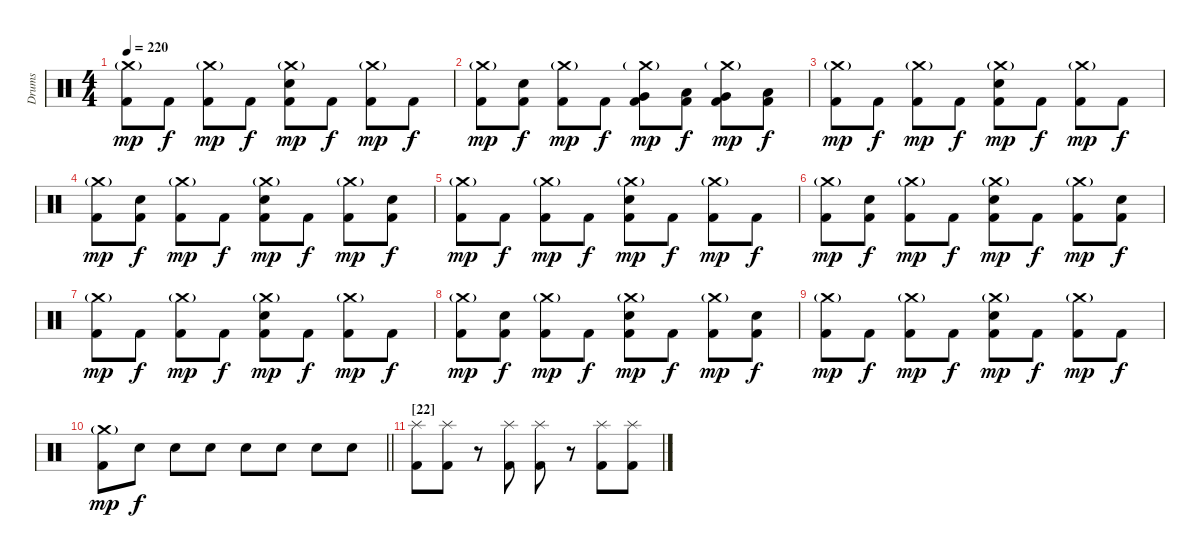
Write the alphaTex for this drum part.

\track ("Drums" "Drums") {instrument percussion}
\staff {score}
\articulation defaults
\ts (4 4)
\tempo 220
\clef neutral
\ks c
("Crash medium (hit)"{g} "Kick (hit) 2").8{dy mp} "Kick (hit) 2".8{dy f} ("Crash medium (hit)"{g} "Kick (hit) 2").8{dy mp} "Kick (hit) 2".8{dy f} ("Crash medium (hit)"{g} "Snare (hit) 2" "Kick (hit) 2").8{dy mp} "Kick (hit) 2".8{dy f} ("Crash medium (hit)"{g} "Kick (hit) 2").8{dy mp} "Kick (hit) 2".8{dy f} |
("Crash medium (hit)"{g} "Kick (hit) 2").8{dy mp} ("Snare (hit) 2" "Kick (hit) 2").8{dy f} ("Crash medium (hit)"{g} "Kick (hit) 2").8{dy mp} "Kick (hit) 2".8{dy f} ("Crash medium (hit)"{g} "Very Low Tom (hit)" "Kick (hit) 2").8{dy mp} ("Low Floor Tom (hit)" "Kick (hit) 2").8{dy f} ("Crash medium (hit)"{g} "Very Low Tom (hit)" "Kick (hit) 2").8{dy mp} ("Low Tom (hit)" "Kick (hit) 2").8{dy f} |
("Crash medium (hit)"{g} "Kick (hit) 2").8{dy mp} "Kick (hit) 2".8{dy f} ("Crash medium (hit)"{g} "Kick (hit) 2").8{dy mp} "Kick (hit) 2".8{dy f} ("Crash medium (hit)"{g} "Snare (hit) 2" "Kick (hit) 2").8{dy mp} "Kick (hit) 2".8{dy f} ("Crash medium (hit)"{g} "Kick (hit) 2").8{dy mp} "Kick (hit) 2".8{dy f} |
("Crash medium (hit)"{g} "Kick (hit) 2").8{dy mp} ("Snare (hit) 2" "Kick (hit) 2").8{dy f} ("Crash medium (hit)"{g} "Kick (hit) 2").8{dy mp} "Kick (hit) 2".8{dy f} ("Crash medium (hit)"{g} "Snare (hit) 2" "Kick (hit) 2").8{dy mp} "Kick (hit) 2".8{dy f} ("Crash medium (hit)"{g} "Kick (hit) 2").8{dy mp} ("Snare (hit) 2" "Kick (hit) 2").8{dy f} |
("Crash medium (hit)"{g} "Kick (hit) 2").8{dy mp} "Kick (hit) 2".8{dy f} ("Crash medium (hit)"{g} "Kick (hit) 2").8{dy mp} "Kick (hit) 2".8{dy f} ("Crash medium (hit)"{g} "Snare (hit) 2" "Kick (hit) 2").8{dy mp} "Kick (hit) 2".8{dy f} ("Crash medium (hit)"{g} "Kick (hit) 2").8{dy mp} "Kick (hit) 2".8{dy f} |
("Crash medium (hit)"{g} "Kick (hit) 2").8{dy mp} ("Snare (hit) 2" "Kick (hit) 2").8{dy f} ("Crash medium (hit)"{g} "Kick (hit) 2").8{dy mp} "Kick (hit) 2".8{dy f} ("Crash medium (hit)"{g} "Snare (hit) 2" "Kick (hit) 2").8{dy mp} "Kick (hit) 2".8{dy f} ("Crash medium (hit)"{g} "Kick (hit) 2").8{dy mp} ("Snare (hit) 2" "Kick (hit) 2").8{dy f} |
("Crash medium (hit)"{g} "Kick (hit) 2").8{dy mp} "Kick (hit) 2".8{dy f} ("Crash medium (hit)"{g} "Kick (hit) 2").8{dy mp} "Kick (hit) 2".8{dy f} ("Crash medium (hit)"{g} "Snare (hit) 2" "Kick (hit) 2").8{dy mp} "Kick (hit) 2".8{dy f} ("Crash medium (hit)"{g} "Kick (hit) 2").8{dy mp} "Kick (hit) 2".8{dy f} |
("Crash medium (hit)"{g} "Kick (hit) 2").8{dy mp} ("Snare (hit) 2" "Kick (hit) 2").8{dy f} ("Crash medium (hit)"{g} "Kick (hit) 2").8{dy mp} "Kick (hit) 2".8{dy f} ("Crash medium (hit)"{g} "Snare (hit) 2" "Kick (hit) 2").8{dy mp} "Kick (hit) 2".8{dy f} ("Crash medium (hit)"{g} "Kick (hit) 2").8{dy mp} ("Snare (hit) 2" "Kick (hit) 2").8{dy f} |
("Crash medium (hit)"{g} "Kick (hit) 2").8{dy mp} "Kick (hit) 2".8{dy f} ("Crash medium (hit)"{g} "Kick (hit) 2").8{dy mp} "Kick (hit) 2".8{dy f} ("Crash medium (hit)"{g} "Snare (hit) 2" "Kick (hit) 2").8{dy mp} "Kick (hit) 2".8{dy f} ("Crash medium (hit)"{g} "Kick (hit) 2").8{dy mp} "Kick (hit) 2".8{dy f} |
\barLineRight lightlight
("Crash medium (hit)"{g} "Kick (hit) 2").8{dy mp} "Snare (hit) 2".8{dy f} "Snare (hit) 2".8 "Snare (hit) 2".8 "Snare (hit) 2".8 "Snare (hit) 2".8 "Snare (hit) 2".8 "Snare (hit) 2".8 |
\section ("" "[22]")
("Splash (hit)" "Kick (hit) 2").8 ("Splash (hit)" "Kick (hit) 2").8 r.8 ("Splash (hit)" "Kick (hit) 2").8 ("Splash (hit)" "Kick (hit) 2").8 r.8 ("Splash (hit)" "Kick (hit) 2").8 ("Splash (hit)" "Kick (hit) 2").8
